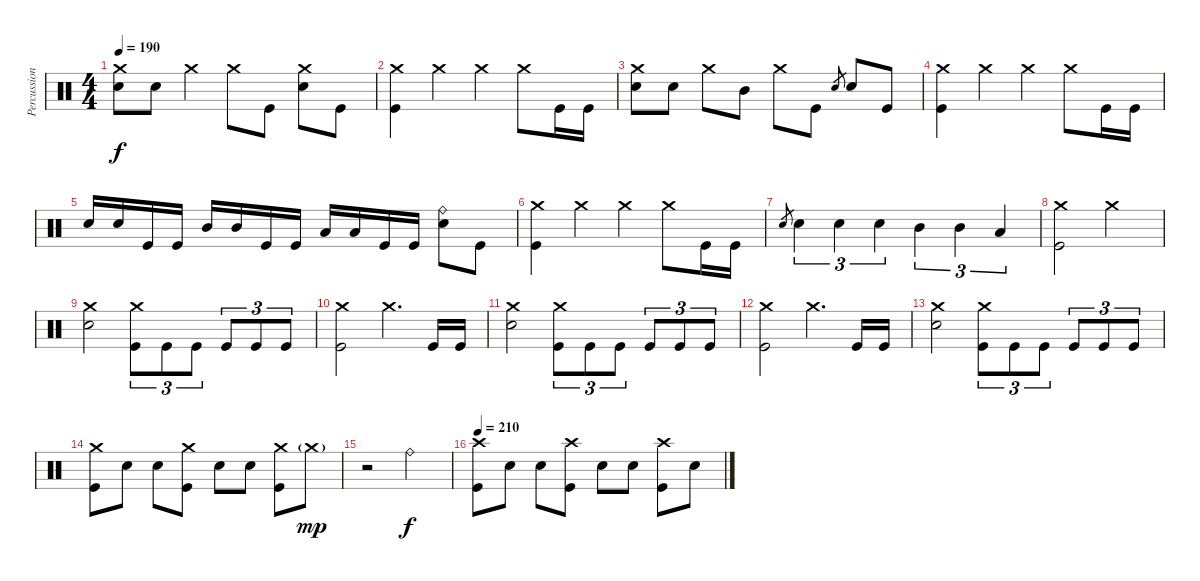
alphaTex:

\track ("Percussion" "Percussion") {instrument percussion}
\staff {score}
\articulation defaults
\ts (4 4)
\tempo 190
\clef neutral
\ks c
("Crash medium (hit)" "Snare (hit) 2").8{dy f} "Snare (hit) 2".8 "Crash medium (hit)".4 "Crash medium (hit)".8 "Kick (hit)".8 ("Crash medium (hit)" "Snare (hit) 2").8 "Kick (hit)".8 |
("Crash medium (hit)" "Kick (hit)").4 "Crash medium (hit)".4 "Crash medium (hit)".4 "Crash medium (hit)".8 "Kick (hit)".16 "Kick (hit)".16 |
("Crash medium (hit)" "Snare (hit) 2").8 "Snare (hit) 2".8 "Crash medium (hit)".8 "Mid Tom (hit)".8 "Crash medium (hit)".8 "Kick (hit)".8 "Snare (hit) 2".8{gr} "Snare (hit) 2".8 "Kick (hit)".8 |
("Crash medium (hit)" "Kick (hit)").4 "Crash medium (hit)".4 "Crash medium (hit)".4 "Crash medium (hit)".8 "Kick (hit)".16 "Kick (hit)".16 |
"Snare (hit) 2".16 "Snare (hit) 2".16 "Kick (hit)".16 "Kick (hit)".16 "Mid Tom (hit)".16 "Mid Tom (hit)".16 "Kick (hit)".16 "Kick (hit)".16 "Low Tom (hit)".16 "Low Tom (hit)".16 "Kick (hit)".16 "Kick (hit)".16 ("Ride (bell)" "Snare (hit) 2").8 "Kick (hit)".8 |
("Crash medium (hit)" "Kick (hit)").4 "Crash medium (hit)".4 "Crash medium (hit)".4 "Crash medium (hit)".8 "Kick (hit)".16 "Kick (hit)".16 |
"Snare (hit) 2".8{gr} "Snare (hit) 2".4{tu (3 2)} "Snare (hit) 2".4{tu (3 2)} "Snare (hit) 2".4{tu (3 2)} "Mid Tom (hit)".4{tu (3 2)} "Mid Tom (hit)".4{tu (3 2)} "Low Tom (hit)".4{tu (3 2)} |
("Crash medium (hit)" "Kick (hit)").2 "Crash medium (hit)".2 |
("Crash medium (hit)" "Snare (hit) 2").2 ("Crash medium (hit)" "Kick (hit)").8{tu (3 2)} "Kick (hit)".8{tu (3 2)} "Kick (hit)".8{tu (3 2)} "Kick (hit)".8{tu (3 2)} "Kick (hit)".8{tu (3 2)} "Kick (hit)".8{tu (3 2)} |
("Crash medium (hit)" "Kick (hit)").2 "Crash medium (hit)".4{d} "Kick (hit)".16 "Kick (hit)".16 |
("Crash medium (hit)" "Snare (hit) 2").2 ("Crash medium (hit)" "Kick (hit)").8{tu (3 2)} "Kick (hit)".8{tu (3 2)} "Kick (hit)".8{tu (3 2)} "Kick (hit)".8{tu (3 2)} "Kick (hit)".8{tu (3 2)} "Kick (hit)".8{tu (3 2)} |
("Crash medium (hit)" "Kick (hit)").2 "Crash medium (hit)".4{d} "Kick (hit)".16 "Kick (hit)".16 |
("Crash medium (hit)" "Snare (hit) 2").2 ("Crash medium (hit)" "Kick (hit)").8{tu (3 2)} "Kick (hit)".8{tu (3 2)} "Kick (hit)".8{tu (3 2)} "Kick (hit)".8{tu (3 2)} "Kick (hit)".8{tu (3 2)} "Kick (hit)".8{tu (3 2)} |
("Crash medium (hit)" "Kick (hit)").8 "Snare (hit) 2".8 "Snare (hit) 2".8 ("Crash medium (hit)" "Kick (hit)").8 "Snare (hit) 2".8 "Snare (hit) 2".8 ("Crash medium (hit)" "Kick (hit)").8 "Crash medium (hit)"{g}.8{dy mp} |
r.2 "Ride (bell)".2{dy f} |
\tempo 210
("Crash high (hit)" "Kick (hit)").8 "Snare (hit) 2".8 "Snare (hit) 2".8 ("Crash high (hit)" "Kick (hit)").8 "Snare (hit) 2".8 "Snare (hit) 2".8 ("Crash high (hit)" "Kick (hit)").8 "Snare (hit) 2".8
